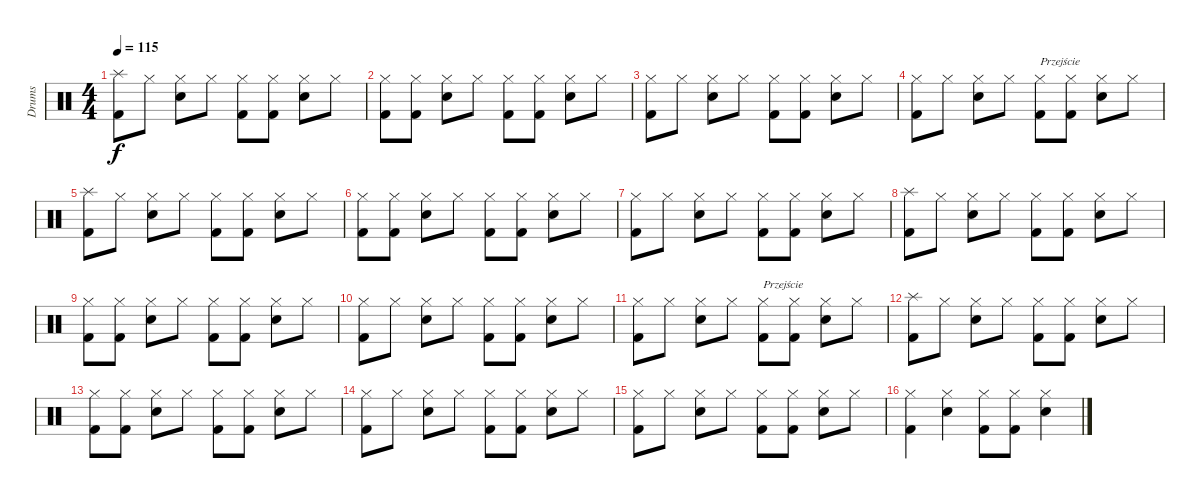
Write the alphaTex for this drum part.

\track ("Drums" "Drums") {instrument percussion}
\staff {score}
\articulation defaults
\ts (4 4)
\tempo 115
\clef neutral
\ks c
("Splash (hit)" "Kick (hit) 2").8{dy f} "Hi-Hat (closed)".8 ("Hi-Hat (closed)" "Electric Snare (hit)").8 "Hi-Hat (closed)".8 ("Hi-Hat (closed)" "Kick (hit) 2").8 ("Hi-Hat (closed)" "Kick (hit) 2").8 ("Hi-Hat (closed)" "Electric Snare (hit)").8 "Hi-Hat (closed)".8 |
("Hi-Hat (closed)" "Kick (hit) 2").8 ("Hi-Hat (closed)" "Kick (hit) 2").8 ("Hi-Hat (closed)" "Electric Snare (hit)").8 "Hi-Hat (closed)".8 ("Hi-Hat (closed)" "Kick (hit) 2").8 ("Hi-Hat (closed)" "Kick (hit) 2").8 ("Hi-Hat (closed)" "Electric Snare (hit)").8 "Hi-Hat (closed)".8 |
("Hi-Hat (closed)" "Kick (hit) 2").8 "Hi-Hat (closed)".8 ("Hi-Hat (closed)" "Electric Snare (hit)").8 "Hi-Hat (closed)".8 ("Hi-Hat (closed)" "Kick (hit) 2").8 ("Hi-Hat (closed)" "Kick (hit) 2").8 ("Hi-Hat (closed)" "Electric Snare (hit)").8 "Hi-Hat (closed)".8 |
("Hi-Hat (closed)" "Kick (hit) 2").8 "Hi-Hat (closed)".8 ("Hi-Hat (closed)" "Electric Snare (hit)").8 "Hi-Hat (closed)".8 ("Hi-Hat (closed)" "Kick (hit) 2").8{txt "Przejście"} ("Hi-Hat (closed)" "Kick (hit) 2").8 ("Hi-Hat (closed)" "Electric Snare (hit)").8 "Hi-Hat (closed)".8 |
("Splash (hit)" "Kick (hit) 2").8 "Hi-Hat (closed)".8 ("Hi-Hat (closed)" "Electric Snare (hit)").8 "Hi-Hat (closed)".8 ("Hi-Hat (closed)" "Kick (hit) 2").8 ("Hi-Hat (closed)" "Kick (hit) 2").8 ("Hi-Hat (closed)" "Electric Snare (hit)").8 "Hi-Hat (closed)".8 |
("Hi-Hat (closed)" "Kick (hit) 2").8 ("Hi-Hat (closed)" "Kick (hit) 2").8 ("Hi-Hat (closed)" "Electric Snare (hit)").8 "Hi-Hat (closed)".8 ("Hi-Hat (closed)" "Kick (hit) 2").8 ("Hi-Hat (closed)" "Kick (hit) 2").8 ("Hi-Hat (closed)" "Electric Snare (hit)").8 "Hi-Hat (closed)".8 |
("Hi-Hat (closed)" "Kick (hit) 2").8 "Hi-Hat (closed)".8 ("Hi-Hat (closed)" "Electric Snare (hit)").8 "Hi-Hat (closed)".8 ("Hi-Hat (closed)" "Kick (hit) 2").8 ("Hi-Hat (closed)" "Kick (hit) 2").8 ("Hi-Hat (closed)" "Electric Snare (hit)").8 "Hi-Hat (closed)".8 |
("Splash (hit)" "Kick (hit) 2").8 "Hi-Hat (closed)".8 ("Hi-Hat (closed)" "Electric Snare (hit)").8 "Hi-Hat (closed)".8 ("Hi-Hat (closed)" "Kick (hit) 2").8 ("Hi-Hat (closed)" "Kick (hit) 2").8 ("Hi-Hat (closed)" "Electric Snare (hit)").8 "Hi-Hat (closed)".8 |
("Hi-Hat (closed)" "Kick (hit) 2").8 ("Hi-Hat (closed)" "Kick (hit) 2").8 ("Hi-Hat (closed)" "Electric Snare (hit)").8 "Hi-Hat (closed)".8 ("Hi-Hat (closed)" "Kick (hit) 2").8 ("Hi-Hat (closed)" "Kick (hit) 2").8 ("Hi-Hat (closed)" "Electric Snare (hit)").8 "Hi-Hat (closed)".8 |
("Hi-Hat (closed)" "Kick (hit) 2").8 "Hi-Hat (closed)".8 ("Hi-Hat (closed)" "Electric Snare (hit)").8 "Hi-Hat (closed)".8 ("Hi-Hat (closed)" "Kick (hit) 2").8 ("Hi-Hat (closed)" "Kick (hit) 2").8 ("Hi-Hat (closed)" "Electric Snare (hit)").8 "Hi-Hat (closed)".8 |
("Hi-Hat (closed)" "Kick (hit) 2").8 "Hi-Hat (closed)".8 ("Hi-Hat (closed)" "Electric Snare (hit)").8 "Hi-Hat (closed)".8 ("Hi-Hat (closed)" "Kick (hit) 2").8{txt "Przejście"} ("Hi-Hat (closed)" "Kick (hit) 2").8 ("Hi-Hat (closed)" "Electric Snare (hit)").8 "Hi-Hat (closed)".8 |
("Splash (hit)" "Kick (hit) 2").8 "Hi-Hat (closed)".8 ("Hi-Hat (closed)" "Electric Snare (hit)").8 "Hi-Hat (closed)".8 ("Hi-Hat (closed)" "Kick (hit) 2").8 ("Hi-Hat (closed)" "Kick (hit) 2").8 ("Hi-Hat (closed)" "Electric Snare (hit)").8 "Hi-Hat (closed)".8 |
("Hi-Hat (closed)" "Kick (hit) 2").8 ("Hi-Hat (closed)" "Kick (hit) 2").8 ("Hi-Hat (closed)" "Electric Snare (hit)").8 "Hi-Hat (closed)".8 ("Hi-Hat (closed)" "Kick (hit) 2").8 ("Hi-Hat (closed)" "Kick (hit) 2").8 ("Hi-Hat (closed)" "Electric Snare (hit)").8 "Hi-Hat (closed)".8 |
("Hi-Hat (closed)" "Kick (hit) 2").8 "Hi-Hat (closed)".8 ("Hi-Hat (closed)" "Electric Snare (hit)").8 "Hi-Hat (closed)".8 ("Hi-Hat (closed)" "Kick (hit) 2").8 ("Hi-Hat (closed)" "Kick (hit) 2").8 ("Hi-Hat (closed)" "Electric Snare (hit)").8 "Hi-Hat (closed)".8 |
("Hi-Hat (closed)" "Kick (hit) 2").8 "Hi-Hat (closed)".8 ("Hi-Hat (closed)" "Electric Snare (hit)").8 "Hi-Hat (closed)".8 ("Hi-Hat (closed)" "Kick (hit) 2").8 ("Hi-Hat (closed)" "Kick (hit) 2").8 ("Hi-Hat (closed)" "Electric Snare (hit)").8 "Hi-Hat (closed)".8 |
("Hi-Hat (closed)" "Kick (hit) 2").4 ("Hi-Hat (closed)" "Electric Snare (hit)").4 ("Hi-Hat (closed)" "Kick (hit) 2").8 ("Hi-Hat (closed)" "Kick (hit) 2").8 ("Hi-Hat (closed)" "Electric Snare (hit)").4
